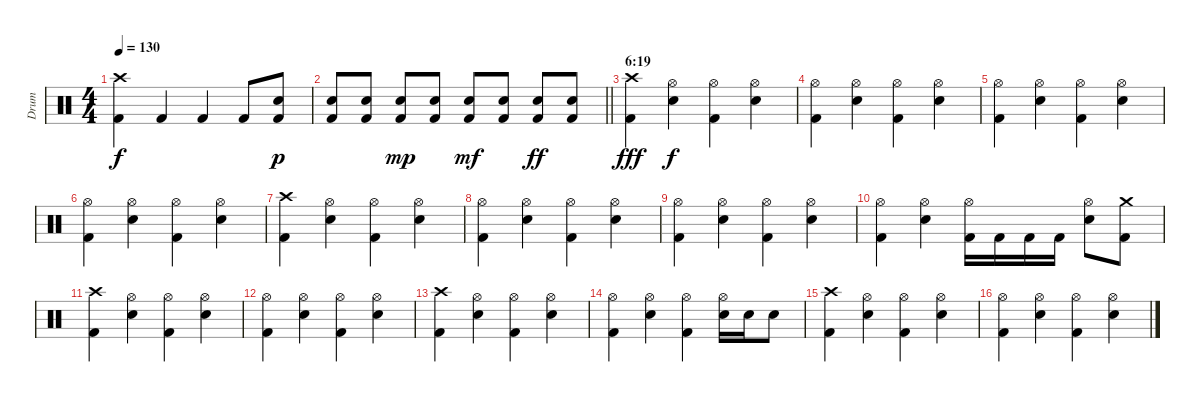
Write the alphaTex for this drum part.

\track ("Drum" "Drum") {instrument percussion}
\staff {score}
\articulation defaults
\ts (4 4)
\tempo 130
\clef neutral
\ks c
("Kick (hit) 2" "Crash high (hit)").4{dy f} "Kick (hit) 2".4 "Kick (hit) 2".4 "Kick (hit) 2".8 ("Kick (hit) 2" "Electric Snare (hit)").8{dy p} |
\barLineRight lightlight
("Kick (hit) 2" "Electric Snare (hit)").8 ("Kick (hit) 2" "Electric Snare (hit)").8 ("Kick (hit) 2" "Electric Snare (hit)").8{dy mp} ("Kick (hit) 2" "Electric Snare (hit)").8 ("Kick (hit) 2" "Electric Snare (hit)").8{dy mf} ("Kick (hit) 2" "Electric Snare (hit)").8 ("Kick (hit) 2" "Electric Snare (hit)").8{dy ff} ("Kick (hit) 2" "Electric Snare (hit)").8 |
\section ("" "6:19")
("Kick (hit) 2" "Crash high (hit)").4{dy fff} ("Electric Snare (hit)" "Hi-Hat (open)").4{dy f} ("Kick (hit) 2" "Hi-Hat (open)").4 ("Electric Snare (hit)" "Hi-Hat (open)").4 |
("Kick (hit) 2" "Hi-Hat (open)").4 ("Electric Snare (hit)" "Hi-Hat (open)").4 ("Kick (hit) 2" "Hi-Hat (open)").4 ("Electric Snare (hit)" "Hi-Hat (open)").4 |
("Kick (hit) 2" "Hi-Hat (open)").4 ("Electric Snare (hit)" "Hi-Hat (open)").4 ("Kick (hit) 2" "Hi-Hat (open)").4 ("Electric Snare (hit)" "Hi-Hat (open)").4 |
("Kick (hit) 2" "Hi-Hat (open)").4 ("Electric Snare (hit)" "Hi-Hat (open)").4 ("Kick (hit) 2" "Hi-Hat (open)").4 ("Electric Snare (hit)" "Hi-Hat (open)").4 |
("Kick (hit) 2" "Crash high (hit)").4 ("Electric Snare (hit)" "Hi-Hat (open)").4 ("Kick (hit) 2" "Hi-Hat (open)").4 ("Electric Snare (hit)" "Hi-Hat (open)").4 |
("Kick (hit) 2" "Hi-Hat (open)").4 ("Electric Snare (hit)" "Hi-Hat (open)").4 ("Kick (hit) 2" "Hi-Hat (open)").4 ("Electric Snare (hit)" "Hi-Hat (open)").4 |
("Kick (hit) 2" "Hi-Hat (open)").4 ("Electric Snare (hit)" "Hi-Hat (open)").4 ("Kick (hit) 2" "Hi-Hat (open)").4 ("Electric Snare (hit)" "Hi-Hat (open)").4 |
("Kick (hit) 2" "Hi-Hat (open)").4 ("Electric Snare (hit)" "Hi-Hat (open)").4 ("Kick (hit) 2" "Hi-Hat (open)").16 "Kick (hit) 2".16 "Kick (hit) 2".16 "Kick (hit) 2".16 ("Electric Snare (hit)" "Hi-Hat (open)").8 ("Kick (hit) 2" "Crash medium (hit)").8 |
("Kick (hit) 2" "Crash high (hit)").4 ("Electric Snare (hit)" "Hi-Hat (open)").4 ("Kick (hit) 2" "Hi-Hat (open)").4 ("Electric Snare (hit)" "Hi-Hat (open)").4 |
("Kick (hit) 2" "Hi-Hat (open)").4 ("Electric Snare (hit)" "Hi-Hat (open)").4 ("Kick (hit) 2" "Hi-Hat (open)").4 ("Electric Snare (hit)" "Hi-Hat (open)").4 |
("Kick (hit) 2" "Crash high (hit)").4 ("Electric Snare (hit)" "Hi-Hat (open)").4 ("Kick (hit) 2" "Hi-Hat (open)").4 ("Electric Snare (hit)" "Hi-Hat (open)").4 |
("Kick (hit) 2" "Hi-Hat (open)").4 ("Electric Snare (hit)" "Hi-Hat (open)").4 ("Kick (hit) 2" "Hi-Hat (open)").4 ("Electric Snare (hit)" "Hi-Hat (open)").16 "Electric Snare (hit)".16 "Electric Snare (hit)".8 |
("Kick (hit) 2" "Crash high (hit)").4 ("Electric Snare (hit)" "Hi-Hat (open)").4 ("Kick (hit) 2" "Hi-Hat (open)").4 ("Electric Snare (hit)" "Hi-Hat (open)").4 |
("Kick (hit) 2" "Hi-Hat (open)").4 ("Electric Snare (hit)" "Hi-Hat (open)").4 ("Kick (hit) 2" "Hi-Hat (open)").4 ("Electric Snare (hit)" "Hi-Hat (open)").4
